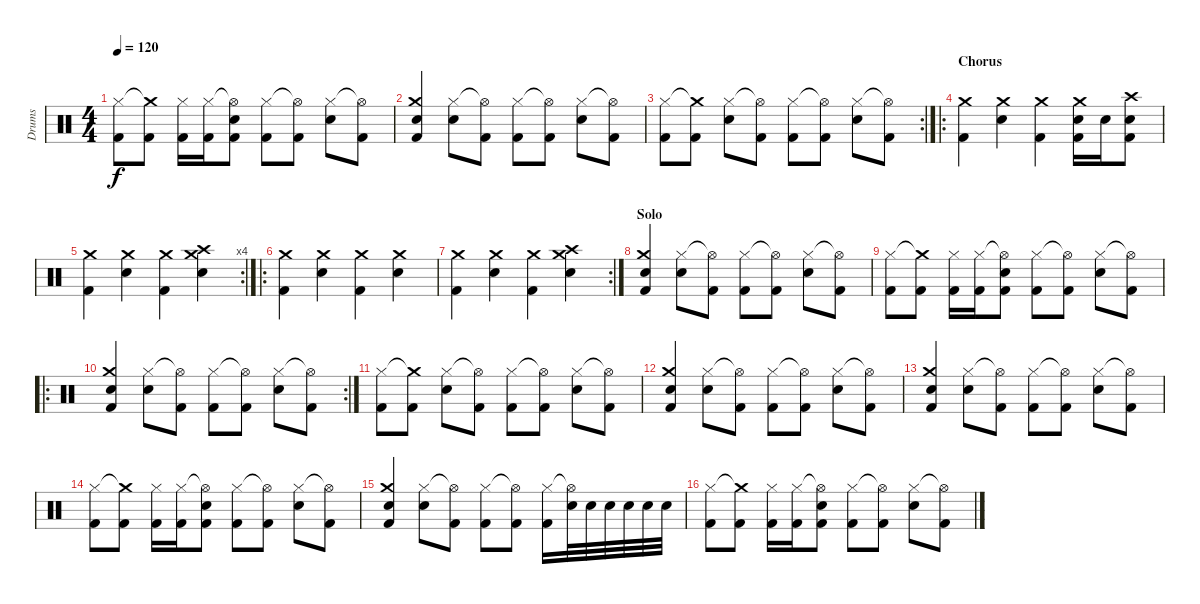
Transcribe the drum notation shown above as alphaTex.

\track ("Drums" "Drums") {instrument percussion}
\staff {score}
\articulation defaults
\ts (4 4)
\tempo 120
\clef neutral
\ks c
("Hi-Hat (closed)" "Kick (hit) 2").8{dy f} ("Crash medium (hit)"{t} "Kick (hit) 2").8 ("Hi-Hat (closed)" "Kick (hit) 2").16 ("Hi-Hat (closed)" "Kick (hit) 2").16 ("Hi-Hat (open)"{t} "Snare (hit) 2" "Kick (hit) 2").8 ("Hi-Hat (closed)" "Kick (hit) 2").8 ("Hi-Hat (open)"{t} "Kick (hit) 2").8 ("Hi-Hat (closed)" "Snare (hit) 2").8 ("Hi-Hat (open)"{t} "Kick (hit) 2").8 |
("Crash medium (hit)" "Snare (hit) 2" "Kick (hit) 2").4 ("Hi-Hat (closed)" "Snare (hit) 2").8 ("Hi-Hat (open)"{t} "Kick (hit) 2").8 ("Hi-Hat (closed)" "Kick (hit) 2").8 ("Hi-Hat (open)"{t} "Kick (hit) 2").8 ("Hi-Hat (closed)" "Snare (hit) 2").8 ("Hi-Hat (open)"{t} "Kick (hit) 2").8 |
\rc 2
("Hi-Hat (closed)" "Kick (hit) 2").8 ("Crash medium (hit)"{t} "Kick (hit) 2").8 ("Hi-Hat (closed)" "Snare (hit) 2").8 ("Hi-Hat (open)"{t} "Kick (hit) 2").8 ("Hi-Hat (closed)" "Kick (hit) 2").8 ("Hi-Hat (open)"{t} "Kick (hit) 2").8 ("Hi-Hat (closed)" "Snare (hit) 2").8 ("Hi-Hat (open)"{t} "Kick (hit) 2").8 |
\ro
\section ("" "Chorus")
("Crash medium (hit)" "Kick (hit) 2").4 ("Crash medium (hit)" "Snare (hit) 2").4 ("Crash medium (hit)" "Kick (hit) 2").4 ("Crash medium (hit)" "Snare (hit) 2" "Kick (hit) 2").16 "Snare (hit) 2".16 ("Crash high (hit)" "Snare (hit) 2" "Kick (hit) 2").8 |
\rc 4
("Crash medium (hit)" "Kick (hit) 2").4 ("Crash medium (hit)" "Snare (hit) 2").4 ("Crash medium (hit)" "Kick (hit) 2").4 ("Crash high (hit)" "Crash medium (hit)" "Snare (hit) 2").4 |
\ro
("Crash medium (hit)" "Kick (hit) 2").4 ("Crash medium (hit)" "Snare (hit) 2").4 ("Crash medium (hit)" "Kick (hit) 2").4 ("Crash medium (hit)" "Snare (hit) 2").4 |
\rc 2
("Crash medium (hit)" "Kick (hit) 2").4 ("Crash medium (hit)" "Snare (hit) 2").4 ("Crash medium (hit)" "Kick (hit) 2").4 ("Crash high (hit)" "Crash medium (hit)" "Snare (hit) 2").4 |
\section ("" "Solo")
("Crash medium (hit)" "Snare (hit) 2" "Kick (hit) 2").4 ("Hi-Hat (closed)" "Snare (hit) 2").8 ("Hi-Hat (open)"{t} "Kick (hit) 2").8 ("Hi-Hat (closed)" "Kick (hit) 2").8 ("Hi-Hat (open)"{t} "Kick (hit) 2").8 ("Hi-Hat (closed)" "Snare (hit) 2").8 ("Hi-Hat (open)"{t} "Kick (hit) 2").8 |
("Hi-Hat (closed)" "Kick (hit) 2").8 ("Crash medium (hit)"{t} "Kick (hit) 2").8 ("Hi-Hat (closed)" "Kick (hit) 2").16 ("Hi-Hat (closed)" "Kick (hit) 2").16 ("Hi-Hat (open)"{t} "Snare (hit) 2" "Kick (hit) 2").8 ("Hi-Hat (closed)" "Kick (hit) 2").8 ("Hi-Hat (open)"{t} "Kick (hit) 2").8 ("Hi-Hat (closed)" "Snare (hit) 2").8 ("Hi-Hat (open)"{t} "Kick (hit) 2").8 |
\ro
\rc 2
("Crash medium (hit)" "Snare (hit) 2" "Kick (hit) 2").4 ("Hi-Hat (closed)" "Snare (hit) 2").8 ("Hi-Hat (open)"{t} "Kick (hit) 2").8 ("Hi-Hat (closed)" "Kick (hit) 2").8 ("Hi-Hat (open)"{t} "Kick (hit) 2").8 ("Hi-Hat (closed)" "Snare (hit) 2").8 ("Hi-Hat (open)"{t} "Kick (hit) 2").8 |
("Hi-Hat (closed)" "Kick (hit) 2").8 ("Crash medium (hit)"{t} "Kick (hit) 2").8 ("Hi-Hat (closed)" "Snare (hit) 2").8 ("Hi-Hat (open)"{t} "Kick (hit) 2").8 ("Hi-Hat (closed)" "Kick (hit) 2").8 ("Hi-Hat (open)"{t} "Kick (hit) 2").8 ("Hi-Hat (closed)" "Snare (hit) 2").8 ("Hi-Hat (open)"{t} "Kick (hit) 2").8 |
("Crash medium (hit)" "Snare (hit) 2" "Kick (hit) 2").4 ("Hi-Hat (closed)" "Snare (hit) 2").8 ("Hi-Hat (open)"{t} "Kick (hit) 2").8 ("Hi-Hat (closed)" "Kick (hit) 2").8 ("Hi-Hat (open)"{t} "Kick (hit) 2").8 ("Hi-Hat (closed)" "Snare (hit) 2").8 ("Hi-Hat (open)"{t} "Kick (hit) 2").8 |
("Crash medium (hit)" "Snare (hit) 2" "Kick (hit) 2").4 ("Hi-Hat (closed)" "Snare (hit) 2").8 ("Hi-Hat (open)"{t} "Kick (hit) 2").8 ("Hi-Hat (closed)" "Kick (hit) 2").8 ("Hi-Hat (open)"{t} "Kick (hit) 2").8 ("Hi-Hat (closed)" "Snare (hit) 2").8 ("Hi-Hat (open)"{t} "Kick (hit) 2").8 |
("Hi-Hat (closed)" "Kick (hit) 2").8 ("Crash medium (hit)"{t} "Kick (hit) 2").8 ("Hi-Hat (closed)" "Kick (hit) 2").16 ("Hi-Hat (closed)" "Kick (hit) 2").16 ("Hi-Hat (open)"{t} "Snare (hit) 2" "Kick (hit) 2").8 ("Hi-Hat (closed)" "Kick (hit) 2").8 ("Hi-Hat (open)"{t} "Kick (hit) 2").8 ("Hi-Hat (closed)" "Snare (hit) 2").8 ("Hi-Hat (open)"{t} "Kick (hit) 2").8 |
("Crash medium (hit)" "Snare (hit) 2" "Kick (hit) 2").4 ("Hi-Hat (closed)" "Snare (hit) 2").8 ("Hi-Hat (open)"{t} "Kick (hit) 2").8 ("Hi-Hat (closed)" "Kick (hit) 2").8 ("Hi-Hat (open)"{t} "Kick (hit) 2").8 ("Hi-Hat (closed)" "Kick (hit) 2").16 ("Hi-Hat (open)"{t} "Snare (hit) 2").32 "Snare (hit) 2".32 "Snare (hit) 2".32 "Snare (hit) 2".32 "Snare (hit) 2".32 "Snare (hit) 2".32 |
("Hi-Hat (closed)" "Kick (hit) 2").8 ("Crash medium (hit)"{t} "Kick (hit) 2").8 ("Hi-Hat (closed)" "Kick (hit) 2").16 ("Hi-Hat (closed)" "Kick (hit) 2").16 ("Hi-Hat (open)"{t} "Snare (hit) 2" "Kick (hit) 2").8 ("Hi-Hat (closed)" "Kick (hit) 2").8 ("Hi-Hat (open)"{t} "Kick (hit) 2").8 ("Hi-Hat (closed)" "Snare (hit) 2").8 ("Hi-Hat (open)"{t} "Kick (hit) 2").8
